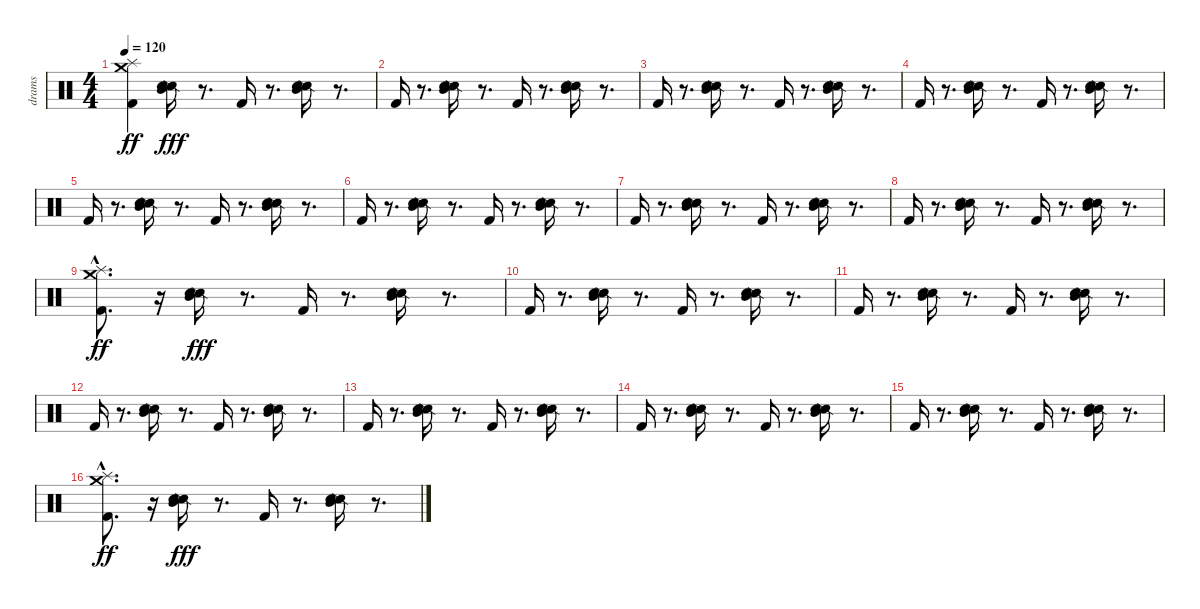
\track ("drams" "drams") {instrument percussion}
\staff {score}
\articulation defaults
\ts (4 4)
\tempo 120
\clef neutral
\ks c
("Kick (hit) 2" "Splash (hit)" "Crash medium (hit)").4{dy ff} ("Snare (side stick) 2" "Snare (hit) 2" "Mid Tom (hit)").16{dy fff} r.8{d} "Kick (hit) 2".16 r.8{d} ("Snare (side stick) 2" "Snare (hit) 2" "Mid Tom (hit)").16 r.8{d} |
"Kick (hit) 2".16 r.8{d} ("Snare (side stick) 2" "Snare (hit) 2" "Mid Tom (hit)").16 r.8{d} "Kick (hit) 2".16 r.8{d} ("Snare (side stick) 2" "Snare (hit) 2" "Mid Tom (hit)").16 r.8{d} |
"Kick (hit) 2".16 r.8{d} ("Snare (side stick) 2" "Snare (hit) 2" "Mid Tom (hit)").16 r.8{d} "Kick (hit) 2".16 r.8{d} ("Snare (side stick) 2" "Snare (hit) 2" "Mid Tom (hit)").16 r.8{d} |
"Kick (hit) 2".16 r.8{d} ("Snare (side stick) 2" "Snare (hit) 2" "Mid Tom (hit)").16 r.8{d} "Kick (hit) 2".16 r.8{d} ("Snare (side stick) 2" "Snare (hit) 2" "Mid Tom (hit)").16 r.8{d} |
"Kick (hit) 2".16 r.8{d} ("Snare (side stick) 2" "Snare (hit) 2" "Mid Tom (hit)").16 r.8{d} "Kick (hit) 2".16 r.8{d} ("Snare (side stick) 2" "Snare (hit) 2" "Mid Tom (hit)").16 r.8{d} |
"Kick (hit) 2".16 r.8{d} ("Snare (side stick) 2" "Snare (hit) 2" "Mid Tom (hit)").16 r.8{d} "Kick (hit) 2".16 r.8{d} ("Snare (side stick) 2" "Snare (hit) 2" "Mid Tom (hit)").16 r.8{d} |
"Kick (hit) 2".16 r.8{d} ("Snare (side stick) 2" "Snare (hit) 2" "Mid Tom (hit)").16 r.8{d} "Kick (hit) 2".16 r.8{d} ("Snare (side stick) 2" "Snare (hit) 2" "Mid Tom (hit)").16 r.8{d} |
"Kick (hit) 2".16 r.8{d} ("Snare (side stick) 2" "Snare (hit) 2" "Mid Tom (hit)").16 r.8{d} "Kick (hit) 2".16 r.8{d} ("Snare (side stick) 2" "Snare (hit) 2" "Mid Tom (hit)").16 r.8{d} |
("Kick (hit) 2" "Splash (hit)"{hac} "Crash medium (hit)"{hac}).8{d dy ff} r.16 ("Snare (side stick) 2" "Snare (hit) 2" "Mid Tom (hit)").16{dy fff} r.8{d} "Kick (hit) 2".16 r.8{d} ("Snare (side stick) 2" "Snare (hit) 2" "Mid Tom (hit)").16 r.8{d} |
"Kick (hit) 2".16 r.8{d} ("Snare (side stick) 2" "Snare (hit) 2" "Mid Tom (hit)").16 r.8{d} "Kick (hit) 2".16 r.8{d} ("Snare (side stick) 2" "Snare (hit) 2" "Mid Tom (hit)").16 r.8{d} |
"Kick (hit) 2".16 r.8{d} ("Snare (side stick) 2" "Snare (hit) 2" "Mid Tom (hit)").16 r.8{d} "Kick (hit) 2".16 r.8{d} ("Snare (side stick) 2" "Snare (hit) 2" "Mid Tom (hit)").16 r.8{d} |
"Kick (hit) 2".16 r.8{d} ("Snare (side stick) 2" "Snare (hit) 2" "Mid Tom (hit)").16 r.8{d} "Kick (hit) 2".16 r.8{d} ("Snare (side stick) 2" "Snare (hit) 2" "Mid Tom (hit)").16 r.8{d} |
"Kick (hit) 2".16 r.8{d} ("Snare (side stick) 2" "Snare (hit) 2" "Mid Tom (hit)").16 r.8{d} "Kick (hit) 2".16 r.8{d} ("Snare (side stick) 2" "Snare (hit) 2" "Mid Tom (hit)").16 r.8{d} |
"Kick (hit) 2".16 r.8{d} ("Snare (side stick) 2" "Snare (hit) 2" "Mid Tom (hit)").16 r.8{d} "Kick (hit) 2".16 r.8{d} ("Snare (side stick) 2" "Snare (hit) 2" "Mid Tom (hit)").16 r.8{d} |
"Kick (hit) 2".16 r.8{d} ("Snare (side stick) 2" "Snare (hit) 2" "Mid Tom (hit)").16 r.8{d} "Kick (hit) 2".16 r.8{d} ("Snare (side stick) 2" "Snare (hit) 2" "Mid Tom (hit)").16 r.8{d} |
("Kick (hit) 2" "Splash (hit)"{hac} "Crash medium (hit)"{hac}).8{d dy ff} r.16 ("Snare (side stick) 2" "Snare (hit) 2" "Mid Tom (hit)").16{dy fff} r.8{d} "Kick (hit) 2".16 r.8{d} ("Snare (side stick) 2" "Snare (hit) 2" "Mid Tom (hit)").16 r.8{d}
